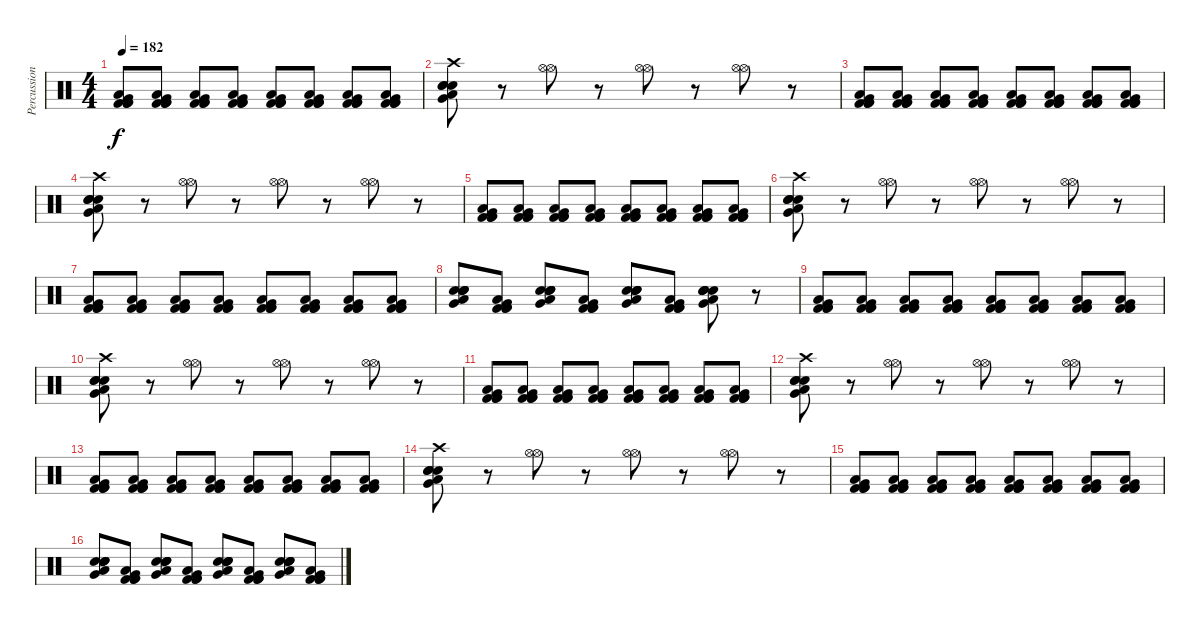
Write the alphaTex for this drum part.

\track ("Percussions" "Percussion") {instrument percussion}
\staff {score}
\articulation defaults
\ts (4 4)
\tempo 182
\clef neutral
\ks c
("Low Floor Tom (hit)" "Kick (hit) 2" "Kick (hit) 2" "Very Low Tom (hit)" "Kick (hit) 2").8{dy f} ("Low Floor Tom (hit)" "Kick (hit) 2" "Kick (hit) 2" "Very Low Tom (hit)" "Kick (hit) 2").8 ("Low Floor Tom (hit)" "Kick (hit) 2" "Kick (hit) 2" "Very Low Tom (hit)" "Kick (hit) 2").8 ("Low Floor Tom (hit)" "Kick (hit) 2" "Kick (hit) 2" "Very Low Tom (hit)" "Kick (hit) 2").8 ("Low Floor Tom (hit)" "Kick (hit) 2" "Kick (hit) 2" "Very Low Tom (hit)" "Kick (hit) 2").8 ("Low Floor Tom (hit)" "Kick (hit) 2" "Kick (hit) 2" "Very Low Tom (hit)" "Kick (hit) 2").8 ("Low Floor Tom (hit)" "Kick (hit) 2" "Kick (hit) 2" "Very Low Tom (hit)" "Kick (hit) 2").8 ("Low Floor Tom (hit)" "Kick (hit) 2" "Kick (hit) 2" "Very Low Tom (hit)" "Kick (hit) 2").8 |
("Electric Snare (hit)" "Low Floor Tom (hit)" "Electric Snare (hit)" "Electric Snare (hit)" "Very Low Tom (hit)" "Crash high (hit)").8 r.8 ("Hi-Hat (open)" "Hi-Hat (open)").8 r.8 ("Hi-Hat (open)" "Hi-Hat (open)").8 r.8 ("Hi-Hat (open)" "Hi-Hat (open)").8 r.8 |
("Low Floor Tom (hit)" "Kick (hit) 2" "Kick (hit) 2" "Very Low Tom (hit)" "Kick (hit) 2").8 ("Low Floor Tom (hit)" "Kick (hit) 2" "Kick (hit) 2" "Very Low Tom (hit)" "Kick (hit) 2").8 ("Low Floor Tom (hit)" "Kick (hit) 2" "Kick (hit) 2" "Very Low Tom (hit)" "Kick (hit) 2").8 ("Low Floor Tom (hit)" "Kick (hit) 2" "Kick (hit) 2" "Very Low Tom (hit)" "Kick (hit) 2").8 ("Low Floor Tom (hit)" "Kick (hit) 2" "Kick (hit) 2" "Very Low Tom (hit)" "Kick (hit) 2").8 ("Low Floor Tom (hit)" "Kick (hit) 2" "Kick (hit) 2" "Very Low Tom (hit)" "Kick (hit) 2").8 ("Low Floor Tom (hit)" "Kick (hit) 2" "Kick (hit) 2" "Very Low Tom (hit)" "Kick (hit) 2").8 ("Low Floor Tom (hit)" "Kick (hit) 2" "Kick (hit) 2" "Very Low Tom (hit)" "Kick (hit) 2").8 |
("Electric Snare (hit)" "Low Floor Tom (hit)" "Electric Snare (hit)" "Electric Snare (hit)" "Very Low Tom (hit)" "Crash high (hit)").8 r.8 ("Hi-Hat (open)" "Hi-Hat (open)").8 r.8 ("Hi-Hat (open)" "Hi-Hat (open)").8 r.8 ("Hi-Hat (open)" "Hi-Hat (open)").8 r.8 |
("Low Floor Tom (hit)" "Kick (hit) 2" "Kick (hit) 2" "Very Low Tom (hit)" "Kick (hit) 2").8 ("Low Floor Tom (hit)" "Kick (hit) 2" "Kick (hit) 2" "Very Low Tom (hit)" "Kick (hit) 2").8 ("Low Floor Tom (hit)" "Kick (hit) 2" "Kick (hit) 2" "Very Low Tom (hit)" "Kick (hit) 2").8 ("Low Floor Tom (hit)" "Kick (hit) 2" "Kick (hit) 2" "Very Low Tom (hit)" "Kick (hit) 2").8 ("Low Floor Tom (hit)" "Kick (hit) 2" "Kick (hit) 2" "Very Low Tom (hit)" "Kick (hit) 2").8 ("Low Floor Tom (hit)" "Kick (hit) 2" "Kick (hit) 2" "Very Low Tom (hit)" "Kick (hit) 2").8 ("Low Floor Tom (hit)" "Kick (hit) 2" "Kick (hit) 2" "Very Low Tom (hit)" "Kick (hit) 2").8 ("Low Floor Tom (hit)" "Kick (hit) 2" "Kick (hit) 2" "Very Low Tom (hit)" "Kick (hit) 2").8 |
("Electric Snare (hit)" "Low Floor Tom (hit)" "Electric Snare (hit)" "Electric Snare (hit)" "Very Low Tom (hit)" "Crash high (hit)").8 r.8 ("Hi-Hat (open)" "Hi-Hat (open)").8 r.8 ("Hi-Hat (open)" "Hi-Hat (open)").8 r.8 ("Hi-Hat (open)" "Hi-Hat (open)").8 r.8 |
("Low Floor Tom (hit)" "Kick (hit) 2" "Kick (hit) 2" "Very Low Tom (hit)" "Kick (hit) 2").8 ("Low Floor Tom (hit)" "Kick (hit) 2" "Kick (hit) 2" "Very Low Tom (hit)" "Kick (hit) 2").8 ("Low Floor Tom (hit)" "Kick (hit) 2" "Kick (hit) 2" "Very Low Tom (hit)" "Kick (hit) 2").8 ("Low Floor Tom (hit)" "Kick (hit) 2" "Kick (hit) 2" "Very Low Tom (hit)" "Kick (hit) 2").8 ("Low Floor Tom (hit)" "Kick (hit) 2" "Kick (hit) 2" "Very Low Tom (hit)" "Kick (hit) 2").8 ("Low Floor Tom (hit)" "Kick (hit) 2" "Kick (hit) 2" "Very Low Tom (hit)" "Kick (hit) 2").8 ("Low Floor Tom (hit)" "Kick (hit) 2" "Kick (hit) 2" "Very Low Tom (hit)" "Kick (hit) 2").8 ("Low Floor Tom (hit)" "Kick (hit) 2" "Kick (hit) 2" "Very Low Tom (hit)" "Kick (hit) 2").8 |
("Electric Snare (hit)" "Low Floor Tom (hit)" "Electric Snare (hit)" "Electric Snare (hit)" "Very Low Tom (hit)" "Electric Snare (hit)").8 ("Low Floor Tom (hit)" "Kick (hit) 2" "Kick (hit) 2" "Very Low Tom (hit)" "Kick (hit) 2").8 ("Electric Snare (hit)" "Low Floor Tom (hit)" "Electric Snare (hit)" "Electric Snare (hit)" "Very Low Tom (hit)" "Electric Snare (hit)").8 ("Low Floor Tom (hit)" "Kick (hit) 2" "Kick (hit) 2" "Very Low Tom (hit)" "Kick (hit) 2").8 ("Electric Snare (hit)" "Low Floor Tom (hit)" "Electric Snare (hit)" "Electric Snare (hit)" "Very Low Tom (hit)" "Electric Snare (hit)").8 ("Low Floor Tom (hit)" "Kick (hit) 2" "Kick (hit) 2" "Very Low Tom (hit)" "Kick (hit) 2").8 ("Electric Snare (hit)" "Low Floor Tom (hit)" "Electric Snare (hit)" "Electric Snare (hit)" "Very Low Tom (hit)" "Electric Snare (hit)").8 r.8 |
("Low Floor Tom (hit)" "Kick (hit) 2" "Kick (hit) 2" "Very Low Tom (hit)" "Kick (hit) 2").8 ("Low Floor Tom (hit)" "Kick (hit) 2" "Kick (hit) 2" "Very Low Tom (hit)" "Kick (hit) 2").8 ("Low Floor Tom (hit)" "Kick (hit) 2" "Kick (hit) 2" "Very Low Tom (hit)" "Kick (hit) 2").8 ("Low Floor Tom (hit)" "Kick (hit) 2" "Kick (hit) 2" "Very Low Tom (hit)" "Kick (hit) 2").8 ("Low Floor Tom (hit)" "Kick (hit) 2" "Kick (hit) 2" "Very Low Tom (hit)" "Kick (hit) 2").8 ("Low Floor Tom (hit)" "Kick (hit) 2" "Kick (hit) 2" "Very Low Tom (hit)" "Kick (hit) 2").8 ("Low Floor Tom (hit)" "Kick (hit) 2" "Kick (hit) 2" "Very Low Tom (hit)" "Kick (hit) 2").8 ("Low Floor Tom (hit)" "Kick (hit) 2" "Kick (hit) 2" "Very Low Tom (hit)" "Kick (hit) 2").8 |
("Electric Snare (hit)" "Low Floor Tom (hit)" "Electric Snare (hit)" "Electric Snare (hit)" "Very Low Tom (hit)" "Crash high (hit)").8 r.8 ("Hi-Hat (open)" "Hi-Hat (open)").8 r.8 ("Hi-Hat (open)" "Hi-Hat (open)").8 r.8 ("Hi-Hat (open)" "Hi-Hat (open)").8 r.8 |
("Low Floor Tom (hit)" "Kick (hit) 2" "Kick (hit) 2" "Very Low Tom (hit)" "Kick (hit) 2").8 ("Low Floor Tom (hit)" "Kick (hit) 2" "Kick (hit) 2" "Very Low Tom (hit)" "Kick (hit) 2").8 ("Low Floor Tom (hit)" "Kick (hit) 2" "Kick (hit) 2" "Very Low Tom (hit)" "Kick (hit) 2").8 ("Low Floor Tom (hit)" "Kick (hit) 2" "Kick (hit) 2" "Very Low Tom (hit)" "Kick (hit) 2").8 ("Low Floor Tom (hit)" "Kick (hit) 2" "Kick (hit) 2" "Very Low Tom (hit)" "Kick (hit) 2").8 ("Low Floor Tom (hit)" "Kick (hit) 2" "Kick (hit) 2" "Very Low Tom (hit)" "Kick (hit) 2").8 ("Low Floor Tom (hit)" "Kick (hit) 2" "Kick (hit) 2" "Very Low Tom (hit)" "Kick (hit) 2").8 ("Low Floor Tom (hit)" "Kick (hit) 2" "Kick (hit) 2" "Very Low Tom (hit)" "Kick (hit) 2").8 |
("Electric Snare (hit)" "Low Floor Tom (hit)" "Electric Snare (hit)" "Electric Snare (hit)" "Very Low Tom (hit)" "Crash high (hit)").8 r.8 ("Hi-Hat (open)" "Hi-Hat (open)").8 r.8 ("Hi-Hat (open)" "Hi-Hat (open)").8 r.8 ("Hi-Hat (open)" "Hi-Hat (open)").8 r.8 |
("Low Floor Tom (hit)" "Kick (hit) 2" "Kick (hit) 2" "Very Low Tom (hit)" "Kick (hit) 2").8 ("Low Floor Tom (hit)" "Kick (hit) 2" "Kick (hit) 2" "Very Low Tom (hit)" "Kick (hit) 2").8 ("Low Floor Tom (hit)" "Kick (hit) 2" "Kick (hit) 2" "Very Low Tom (hit)" "Kick (hit) 2").8 ("Low Floor Tom (hit)" "Kick (hit) 2" "Kick (hit) 2" "Very Low Tom (hit)" "Kick (hit) 2").8 ("Low Floor Tom (hit)" "Kick (hit) 2" "Kick (hit) 2" "Very Low Tom (hit)" "Kick (hit) 2").8 ("Low Floor Tom (hit)" "Kick (hit) 2" "Kick (hit) 2" "Very Low Tom (hit)" "Kick (hit) 2").8 ("Low Floor Tom (hit)" "Kick (hit) 2" "Kick (hit) 2" "Very Low Tom (hit)" "Kick (hit) 2").8 ("Low Floor Tom (hit)" "Kick (hit) 2" "Kick (hit) 2" "Very Low Tom (hit)" "Kick (hit) 2").8 |
("Electric Snare (hit)" "Low Floor Tom (hit)" "Electric Snare (hit)" "Electric Snare (hit)" "Very Low Tom (hit)" "Crash high (hit)").8 r.8 ("Hi-Hat (open)" "Hi-Hat (open)").8 r.8 ("Hi-Hat (open)" "Hi-Hat (open)").8 r.8 ("Hi-Hat (open)" "Hi-Hat (open)").8 r.8 |
("Low Floor Tom (hit)" "Kick (hit) 2" "Kick (hit) 2" "Very Low Tom (hit)" "Kick (hit) 2").8 ("Low Floor Tom (hit)" "Kick (hit) 2" "Kick (hit) 2" "Very Low Tom (hit)" "Kick (hit) 2").8 ("Low Floor Tom (hit)" "Kick (hit) 2" "Kick (hit) 2" "Very Low Tom (hit)" "Kick (hit) 2").8 ("Low Floor Tom (hit)" "Kick (hit) 2" "Kick (hit) 2" "Very Low Tom (hit)" "Kick (hit) 2").8 ("Low Floor Tom (hit)" "Kick (hit) 2" "Kick (hit) 2" "Very Low Tom (hit)" "Kick (hit) 2").8 ("Low Floor Tom (hit)" "Kick (hit) 2" "Kick (hit) 2" "Very Low Tom (hit)" "Kick (hit) 2").8 ("Low Floor Tom (hit)" "Kick (hit) 2" "Kick (hit) 2" "Very Low Tom (hit)" "Kick (hit) 2").8 ("Low Floor Tom (hit)" "Kick (hit) 2" "Kick (hit) 2" "Very Low Tom (hit)" "Kick (hit) 2").8 |
("Electric Snare (hit)" "Low Floor Tom (hit)" "Electric Snare (hit)" "Electric Snare (hit)" "Very Low Tom (hit)" "Electric Snare (hit)").8 ("Low Floor Tom (hit)" "Kick (hit) 2" "Kick (hit) 2" "Very Low Tom (hit)" "Kick (hit) 2").8 ("Electric Snare (hit)" "Low Floor Tom (hit)" "Electric Snare (hit)" "Electric Snare (hit)" "Very Low Tom (hit)" "Electric Snare (hit)").8 ("Low Floor Tom (hit)" "Kick (hit) 2" "Kick (hit) 2" "Very Low Tom (hit)" "Kick (hit) 2").8 ("Electric Snare (hit)" "Low Floor Tom (hit)" "Electric Snare (hit)" "Electric Snare (hit)" "Very Low Tom (hit)" "Electric Snare (hit)").8 ("Low Floor Tom (hit)" "Kick (hit) 2" "Kick (hit) 2" "Very Low Tom (hit)" "Kick (hit) 2").8 ("Electric Snare (hit)" "Low Floor Tom (hit)" "Electric Snare (hit)" "Electric Snare (hit)" "Very Low Tom (hit)" "Electric Snare (hit)").8 ("Low Floor Tom (hit)" "Kick (hit) 2" "Kick (hit) 2" "Very Low Tom (hit)" "Kick (hit) 2").8
